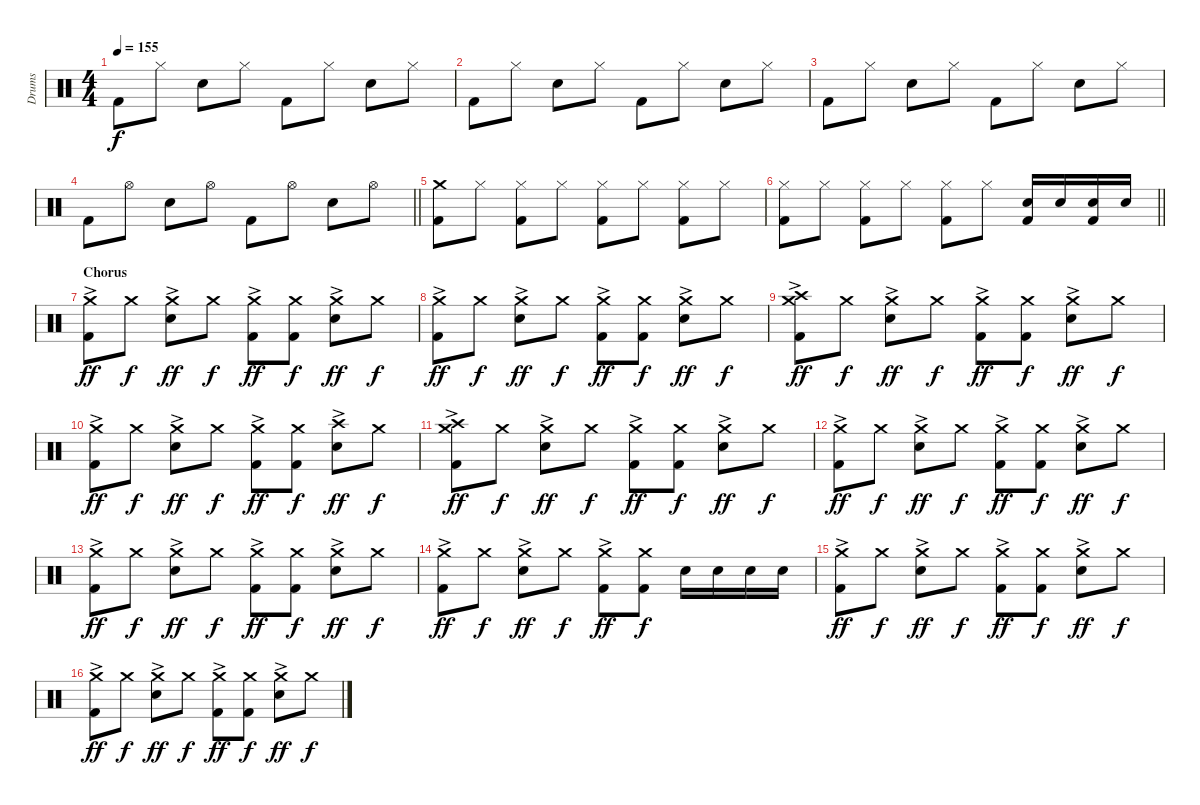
\track ("Drums" "Drums") {instrument percussion}
\staff {score}
\articulation defaults
\ts (4 4)
\tempo 155
\clef neutral
\ks c "Kick (hit) 2".8{dy f} "Hi-Hat (closed)".8 "Electric Snare (hit)".8 "Hi-Hat (closed)".8 "Kick (hit) 2".8 "Hi-Hat (closed)".8 "Electric Snare (hit)".8 "Hi-Hat (closed)".8
|
"Kick (hit) 2".8 "Hi-Hat (closed)".8 "Electric Snare (hit)".8 "Hi-Hat (closed)".8 "Kick (hit) 2".8 "Hi-Hat (closed)".8 "Electric Snare (hit)".8 "Hi-Hat (closed)".8 |
"Kick (hit) 2".8 "Hi-Hat (closed)".8 "Electric Snare (hit)".8 "Hi-Hat (closed)".8 "Kick (hit) 2".8 "Hi-Hat (closed)".8 "Electric Snare (hit)".8 "Hi-Hat (closed)".8 |
\barLineRight lightlight "Kick (hit) 2".8 "Hi-Hat (open)".8 "Electric Snare (hit)".8 "Hi-Hat (open)".8 "Kick (hit) 2".8 "Hi-Hat (open)".8 "Electric Snare (hit)".8 "Hi-Hat (open)".8
|
("Crash medium (hit)" "Kick (hit) 2").8 "Hi-Hat (closed)".8 ("Hi-Hat (closed)" "Kick (hit) 2").8 "Hi-Hat (closed)".8 ("Hi-Hat (closed)" "Kick (hit) 2").8 "Hi-Hat (closed)".8 ("Hi-Hat (closed)" "Kick (hit) 2").8 "Hi-Hat (closed)".8 |
\barLineRight lightlight
("Hi-Hat (closed)" "Kick (hit) 2").8 "Hi-Hat (closed)".8 ("Hi-Hat (closed)" "Kick (hit) 2").8 "Hi-Hat (closed)".8 ("Hi-Hat (closed)" "Kick (hit) 2").8 "Hi-Hat (closed)".8 ("Electric Snare (hit)" "Kick (hit) 2").16 "Electric Snare (hit)".16 ("Electric Snare (hit)" "Kick (hit) 2").16 "Electric Snare (hit)".16 |
\section ("" "Chorus")
("Crash medium (hit)"{ac} "Kick (hit) 2").8{dy ff} "Crash medium (hit)".8{dy f} ("Crash medium (hit)"{ac} "Electric Snare (hit)").8{dy ff} "Crash medium (hit)".8{dy f} ("Crash medium (hit)"{ac} "Kick (hit) 2").8{dy ff} ("Crash medium (hit)" "Kick (hit) 2").8{dy f} ("Crash medium (hit)"{ac} "Electric Snare (hit)").8{dy ff} "Crash medium (hit)".8{dy f} |
("Crash medium (hit)"{ac} "Kick (hit) 2").8{dy ff} "Crash medium (hit)".8{dy f} ("Crash medium (hit)"{ac} "Electric Snare (hit)").8{dy ff} "Crash medium (hit)".8{dy f} ("Crash medium (hit)"{ac} "Kick (hit) 2").8{dy ff} ("Crash medium (hit)" "Kick (hit) 2").8{dy f} ("Crash medium (hit)"{ac} "Electric Snare (hit)").8{dy ff} "Crash medium (hit)".8{dy f} |
("Crash medium (hit)"{ac} "Crash high (hit)" "Kick (hit) 2").8{dy ff} "Crash medium (hit)".8{dy f} ("Crash medium (hit)"{ac} "Electric Snare (hit)").8{dy ff} "Crash medium (hit)".8{dy f} ("Crash medium (hit)"{ac} "Kick (hit) 2").8{dy ff} ("Crash medium (hit)" "Kick (hit) 2").8{dy f} ("Crash medium (hit)"{ac} "Electric Snare (hit)").8{dy ff} "Crash medium (hit)".8{dy f} |
("Crash medium (hit)"{ac} "Kick (hit) 2").8{dy ff} "Crash medium (hit)".8{dy f} ("Crash medium (hit)"{ac} "Electric Snare (hit)").8{dy ff} "Crash medium (hit)".8{dy f} ("Crash medium (hit)"{ac} "Kick (hit) 2").8{dy ff} ("Crash medium (hit)" "Kick (hit) 2").8{dy f} ("Crash high (hit)"{ac} "Electric Snare (hit)").8{dy ff} "Crash medium (hit)".8{dy f} |
("Crash medium (hit)"{ac} "Crash high (hit)" "Kick (hit) 2").8{dy ff} "Crash medium (hit)".8{dy f} ("Crash medium (hit)"{ac} "Electric Snare (hit)").8{dy ff} "Crash medium (hit)".8{dy f} ("Crash medium (hit)"{ac} "Kick (hit) 2").8{dy ff} ("Crash medium (hit)" "Kick (hit) 2").8{dy f} ("Crash medium (hit)"{ac} "Electric Snare (hit)").8{dy ff} "Crash medium (hit)".8{dy f} |
("Crash medium (hit)"{ac} "Kick (hit) 2").8{dy ff} "Crash medium (hit)".8{dy f} ("Crash medium (hit)"{ac} "Electric Snare (hit)").8{dy ff} "Crash medium (hit)".8{dy f} ("Crash medium (hit)"{ac} "Kick (hit) 2").8{dy ff} ("Crash medium (hit)" "Kick (hit) 2").8{dy f} ("Crash medium (hit)"{ac} "Electric Snare (hit)").8{dy ff} "Crash medium (hit)".8{dy f} |
("Crash medium (hit)"{ac} "Kick (hit) 2").8{dy ff} "Crash medium (hit)".8{dy f} ("Crash medium (hit)"{ac} "Electric Snare (hit)").8{dy ff} "Crash medium (hit)".8{dy f} ("Crash medium (hit)"{ac} "Kick (hit) 2").8{dy ff} ("Crash medium (hit)" "Kick (hit) 2").8{dy f} ("Crash medium (hit)"{ac} "Electric Snare (hit)").8{dy ff} "Crash medium (hit)".8{dy f} |
("Crash medium (hit)"{ac} "Kick (hit) 2").8{dy ff} "Crash medium (hit)".8{dy f} ("Crash medium (hit)"{ac} "Electric Snare (hit)").8{dy ff} "Crash medium (hit)".8{dy f} ("Crash medium (hit)"{ac} "Kick (hit) 2").8{dy ff} ("Crash medium (hit)" "Kick (hit) 2").8{dy f} "Electric Snare (hit)".16 "Electric Snare (hit)".16 "Electric Snare (hit)".16 "Electric Snare (hit)".16 |
("Crash medium (hit)"{ac} "Kick (hit) 2").8{dy ff} "Crash medium (hit)".8{dy f} ("Crash medium (hit)"{ac} "Electric Snare (hit)").8{dy ff} "Crash medium (hit)".8{dy f} ("Crash medium (hit)"{ac} "Kick (hit) 2").8{dy ff} ("Crash medium (hit)" "Kick (hit) 2").8{dy f} ("Crash medium (hit)"{ac} "Electric Snare (hit)").8{dy ff} "Crash medium (hit)".8{dy f} |
("Crash medium (hit)"{ac} "Kick (hit) 2").8{dy ff} "Crash medium (hit)".8{dy f} ("Crash medium (hit)"{ac} "Electric Snare (hit)").8{dy ff} "Crash medium (hit)".8{dy f} ("Crash medium (hit)"{ac} "Kick (hit) 2").8{dy ff} ("Crash medium (hit)" "Kick (hit) 2").8{dy f} ("Crash medium (hit)"{ac} "Electric Snare (hit)").8{dy ff} "Crash medium (hit)".8{dy f}
